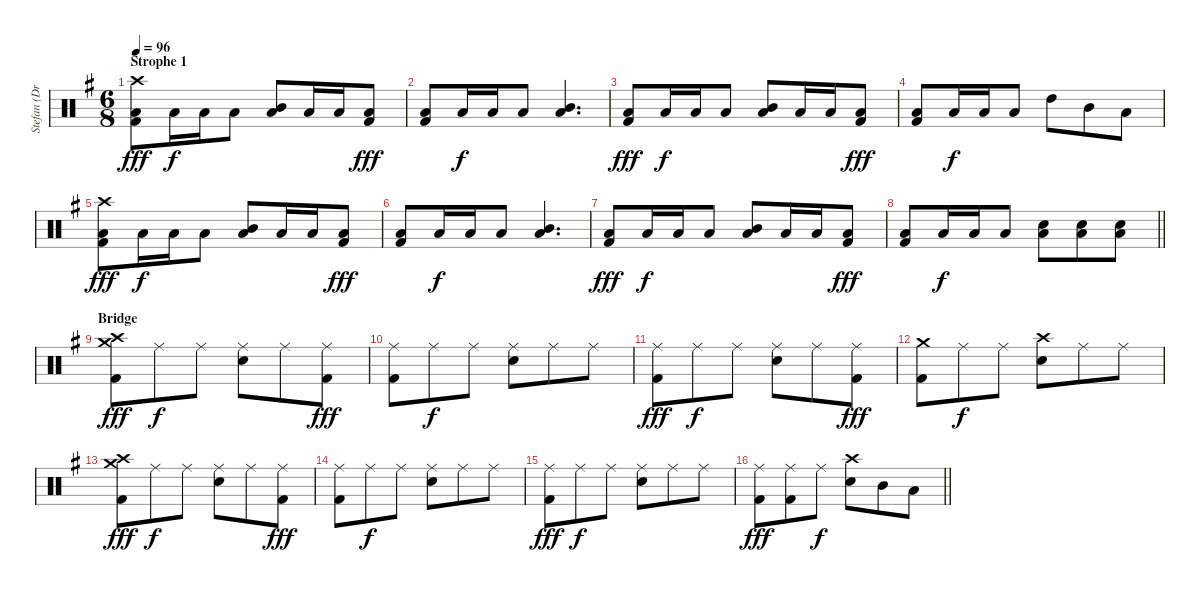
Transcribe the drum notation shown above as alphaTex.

\track ("Stefan (Drums)" "Stefan (Dr") {instrument percussion}
\staff {score}
\articulation defaults
\ts (6 8)
\section ("" "Strophe 1")
\tempo 96
\clef neutral
\ks g
("Crash high (hit)" "Low Tom (hit)" "Kick (hit) 2").8{dy fff} "Low Tom (hit)".16{dy f} "Low Tom (hit)".16 "Low Tom (hit)".8 ("Mid Tom (hit)" "Low Tom (hit)").8 "Low Tom (hit)".16 "Low Tom (hit)".16 ("Low Tom (hit)" "Kick (hit) 2").8{dy fff} |
("Low Tom (hit)" "Kick (hit) 2").8 "Low Tom (hit)".16{dy f} "Low Tom (hit)".16 "Low Tom (hit)".8 ("Mid Tom (hit)" "Low Tom (hit)").4{d} |
("Low Tom (hit)" "Kick (hit) 2").8{dy fff} "Low Tom (hit)".16{dy f} "Low Tom (hit)".16 "Low Tom (hit)".8 ("Mid Tom (hit)" "Low Tom (hit)").8 "Low Tom (hit)".16 "Low Tom (hit)".16 ("Low Tom (hit)" "Kick (hit) 2").8{dy fff} |
("Low Tom (hit)" "Kick (hit) 2").8 "Low Tom (hit)".16{dy f} "Low Tom (hit)".16 "Low Tom (hit)".8 "High Tom (hit)".8 "Mid Tom (hit)".8 "Low Tom (hit)".8 |
("Crash high (hit)" "Low Tom (hit)" "Kick (hit) 2").8{dy fff} "Low Tom (hit)".16{dy f} "Low Tom (hit)".16 "Low Tom (hit)".8 ("Mid Tom (hit)" "Low Tom (hit)").8 "Low Tom (hit)".16 "Low Tom (hit)".16 ("Low Tom (hit)" "Kick (hit) 2").8{dy fff} |
("Low Tom (hit)" "Kick (hit) 2").8 "Low Tom (hit)".16{dy f} "Low Tom (hit)".16 "Low Tom (hit)".8 ("Mid Tom (hit)" "Low Tom (hit)").4{d} |
("Low Tom (hit)" "Kick (hit) 2").8{dy fff} "Low Tom (hit)".16{dy f} "Low Tom (hit)".16 "Low Tom (hit)".8 ("Mid Tom (hit)" "Low Tom (hit)").8 "Low Tom (hit)".16 "Low Tom (hit)".16 ("Low Tom (hit)" "Kick (hit) 2").8{dy fff} |
\barLineRight lightlight
("Low Tom (hit)" "Kick (hit) 2").8 "Low Tom (hit)".16{dy f} "Low Tom (hit)".16 "Low Tom (hit)".8 ("Snare (hit) 2" "Low Tom (hit)").8 ("Snare (hit) 2" "Low Tom (hit)").8 ("Snare (hit) 2" "Low Tom (hit)").8 |
\section ("" "Bridge")
("Crash medium (hit)" "Crash high (hit)" "Kick (hit) 2").8{dy fff} "Ride (middle)".8{dy f} "Ride (middle)".8 ("Ride (middle)" "Snare (hit) 2").8 "Ride (middle)".8 ("Ride (middle)" "Kick (hit) 2").8{dy fff} |
("Ride (middle)" "Kick (hit) 2").8 "Ride (middle)".8{dy f} "Ride (middle)".8 ("Ride (middle)" "Snare (hit) 2").8 "Ride (middle)".8 "Ride (middle)".8 |
("Ride (middle)" "Kick (hit) 2").8{dy fff} "Ride (middle)".8{dy f} "Ride (middle)".8 ("Ride (middle)" "Snare (hit) 2").8 "Ride (middle)".8 ("Ride (middle)" "Kick (hit) 2").8{dy fff} |
("Crash medium (hit)" "Kick (hit) 2").8 "Ride (middle)".8{dy f} "Ride (middle)".8 ("Crash high (hit)" "Snare (hit) 2").8 "Ride (middle)".8 "Ride (middle)".8 |
("Crash medium (hit)" "Crash high (hit)" "Kick (hit) 2").8{dy fff} "Ride (middle)".8{dy f} "Ride (middle)".8 ("Ride (middle)" "Snare (hit) 2").8 "Ride (middle)".8 ("Ride (middle)" "Kick (hit) 2").8{dy fff} |
("Ride (middle)" "Kick (hit) 2").8 "Ride (middle)".8{dy f} "Ride (middle)".8 ("Ride (middle)" "Snare (hit) 2").8 "Ride (middle)".8 "Ride (middle)".8 |
("Ride (middle)" "Kick (hit) 2").8{dy fff} "Ride (middle)".8{dy f} "Ride (middle)".8 ("Ride (middle)" "Snare (hit) 2").8 "Ride (middle)".8 "Ride (middle)".8 |
\barLineRight lightlight
("Ride (middle)" "Kick (hit) 2").8{dy fff} ("Ride (middle)" "Kick (hit) 2").8 "Ride (middle)".8{dy f} ("Crash high (hit)" "Snare (hit) 2").8 "Mid Tom (hit)".8 "Low Tom (hit)".8
